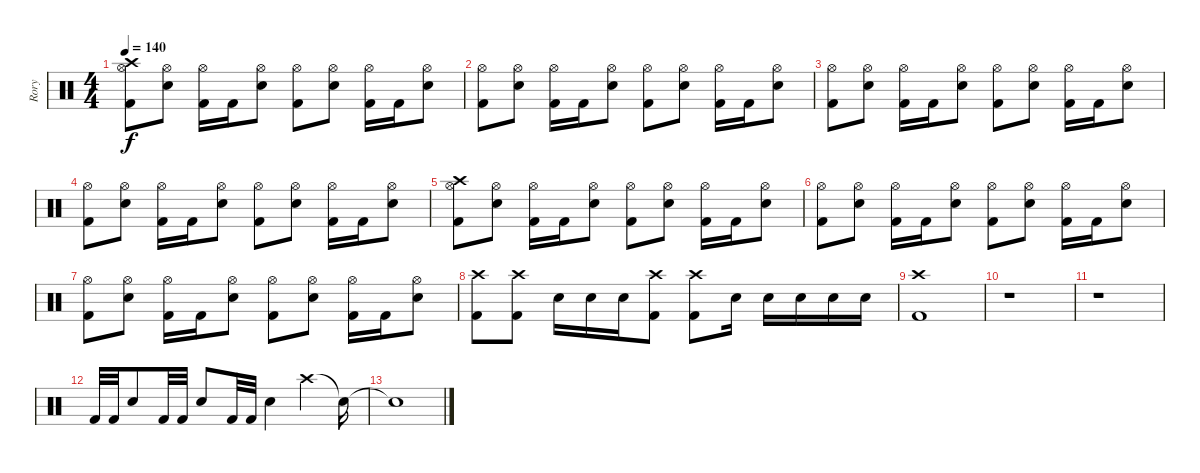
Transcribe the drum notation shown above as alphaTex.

\track ("Rory" "Rory") {instrument percussion}
\staff {score}
\articulation defaults
\ts (4 4)
\tempo 140
\clef neutral
\ks c
("Crash high (hit)" "Hi-Hat (open)" "Kick (hit) 2").8{dy f} ("Hi-Hat (open)" "Electric Snare (hit)").8 ("Hi-Hat (open)" "Kick (hit) 2").16 "Kick (hit) 2".16 ("Hi-Hat (open)" "Electric Snare (hit)").8 ("Hi-Hat (open)" "Kick (hit) 2").8 ("Hi-Hat (open)" "Electric Snare (hit)").8 ("Hi-Hat (open)" "Kick (hit) 2").16 "Kick (hit) 2".16 ("Hi-Hat (open)" "Electric Snare (hit)").8 |
("Hi-Hat (open)" "Kick (hit) 2").8 ("Hi-Hat (open)" "Electric Snare (hit)").8 ("Hi-Hat (open)" "Kick (hit) 2").16 "Kick (hit) 2".16 ("Hi-Hat (open)" "Electric Snare (hit)").8 ("Hi-Hat (open)" "Kick (hit) 2").8 ("Hi-Hat (open)" "Electric Snare (hit)").8 ("Hi-Hat (open)" "Kick (hit) 2").16 "Kick (hit) 2".16 ("Hi-Hat (open)" "Electric Snare (hit)").8 |
("Hi-Hat (open)" "Kick (hit) 2").8 ("Hi-Hat (open)" "Electric Snare (hit)").8 ("Hi-Hat (open)" "Kick (hit) 2").16 "Kick (hit) 2".16 ("Hi-Hat (open)" "Electric Snare (hit)").8 ("Hi-Hat (open)" "Kick (hit) 2").8 ("Hi-Hat (open)" "Electric Snare (hit)").8 ("Hi-Hat (open)" "Kick (hit) 2").16 "Kick (hit) 2".16 ("Hi-Hat (open)" "Electric Snare (hit)").8 |
("Hi-Hat (open)" "Kick (hit) 2").8 ("Hi-Hat (open)" "Electric Snare (hit)").8 ("Hi-Hat (open)" "Kick (hit) 2").16 "Kick (hit) 2".16 ("Hi-Hat (open)" "Electric Snare (hit)").8 ("Hi-Hat (open)" "Kick (hit) 2").8 ("Hi-Hat (open)" "Electric Snare (hit)").8 ("Hi-Hat (open)" "Kick (hit) 2").16 "Kick (hit) 2".16 ("Hi-Hat (open)" "Electric Snare (hit)").8 |
("Crash high (hit)" "Hi-Hat (open)" "Kick (hit) 2").8 ("Hi-Hat (open)" "Electric Snare (hit)").8 ("Hi-Hat (open)" "Kick (hit) 2").16 "Kick (hit) 2".16 ("Hi-Hat (open)" "Electric Snare (hit)").8 ("Hi-Hat (open)" "Kick (hit) 2").8 ("Hi-Hat (open)" "Electric Snare (hit)").8 ("Hi-Hat (open)" "Kick (hit) 2").16 "Kick (hit) 2".16 ("Hi-Hat (open)" "Electric Snare (hit)").8 |
("Hi-Hat (open)" "Kick (hit) 2").8 ("Hi-Hat (open)" "Electric Snare (hit)").8 ("Hi-Hat (open)" "Kick (hit) 2").16 "Kick (hit) 2".16 ("Hi-Hat (open)" "Electric Snare (hit)").8 ("Hi-Hat (open)" "Kick (hit) 2").8 ("Hi-Hat (open)" "Electric Snare (hit)").8 ("Hi-Hat (open)" "Kick (hit) 2").16 "Kick (hit) 2".16 ("Hi-Hat (open)" "Electric Snare (hit)").8 |
("Hi-Hat (open)" "Kick (hit) 2").8 ("Hi-Hat (open)" "Electric Snare (hit)").8 ("Hi-Hat (open)" "Kick (hit) 2").16 "Kick (hit) 2".16 ("Hi-Hat (open)" "Electric Snare (hit)").8 ("Hi-Hat (open)" "Kick (hit) 2").8 ("Hi-Hat (open)" "Electric Snare (hit)").8 ("Hi-Hat (open)" "Kick (hit) 2").16 "Kick (hit) 2".16 ("Hi-Hat (open)" "Electric Snare (hit)").8 |
("Crash high (hit)" "Kick (hit) 2").8 ("Crash high (hit)" "Kick (hit) 2").8 "Electric Snare (hit)".16 "Electric Snare (hit)".16 "Electric Snare (hit)".16 ("Crash high (hit)" "Kick (hit) 2").8 ("Crash high (hit)" "Kick (hit) 2").8 "Electric Snare (hit)".16 "Electric Snare (hit)".16 "Electric Snare (hit)".16 "Electric Snare (hit)".16 "Electric Snare (hit)".16 |
("Crash high (hit)" "Kick (hit) 2").1 |
r.1 |
r.1 |
"Kick (hit) 2".32 "Kick (hit) 2".32 "Electric Snare (hit)".8 "Kick (hit) 2".32 "Kick (hit) 2".32 "Electric Snare (hit)".8 "Kick (hit) 2".32 "Kick (hit) 2".32 "Electric Snare (hit)".4 "Crash high (hit)".4 "Snare (hit)"{t}.16 |
"Snare (hit)"{t}.1
